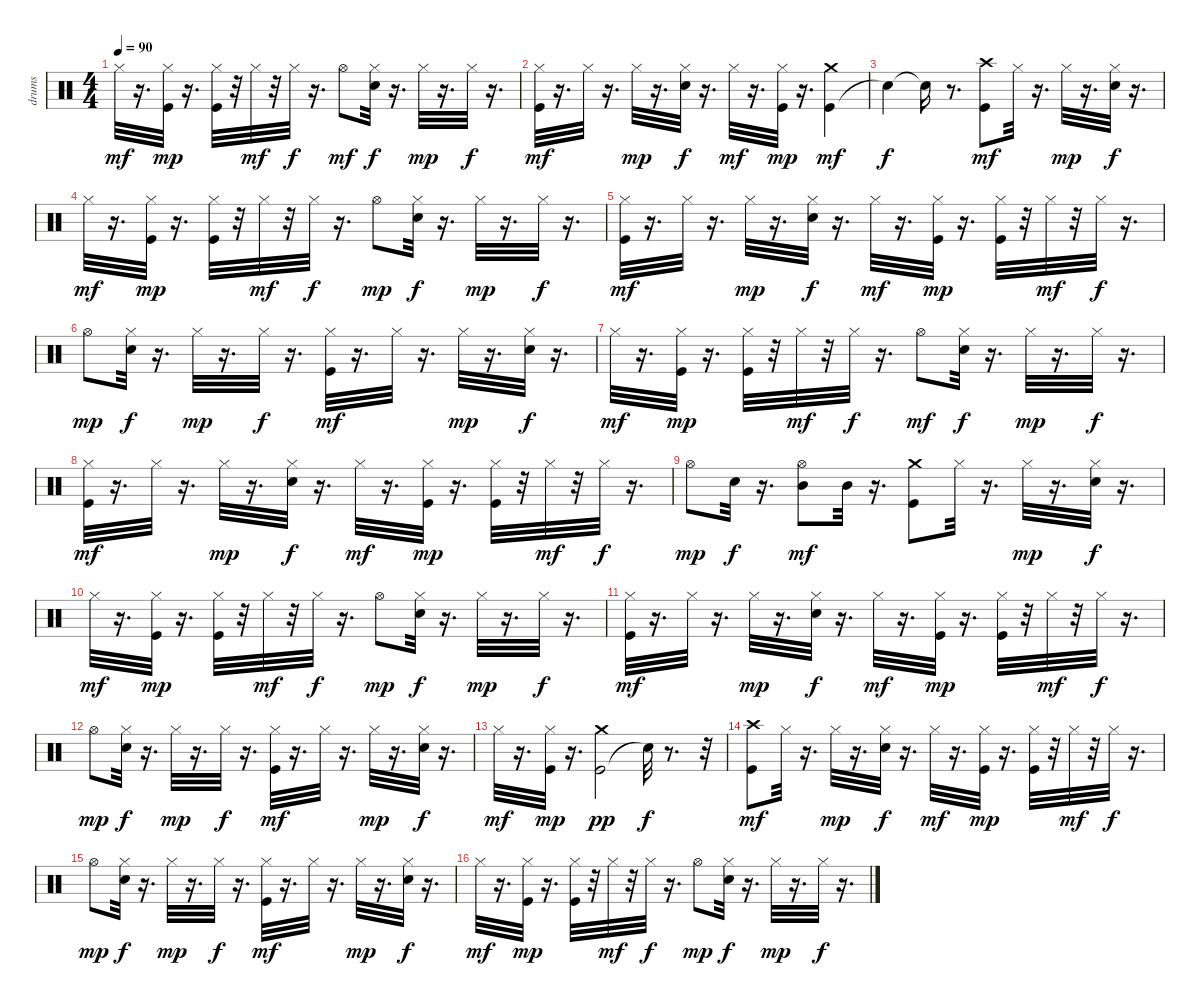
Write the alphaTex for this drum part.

\track ("drums" "drums") {instrument percussion}
\staff {score}
\articulation defaults
\ts (4 4)
\tempo 90
\clef neutral
\ks c "Hi-Hat (closed)".32{dy mf}
r.16{d} ("Kick (hit)" "Hi-Hat (closed)").32{dy mp} r.16{d} ("Kick (hit)" "Hi-Hat (closed)").32 r.32 "Hi-Hat (closed)".32{dy mf} r.32 "Hi-Hat (closed)".32{dy f} r.16{d} "Hi-Hat (open)".8{dy mf} ("Snare (hit) 2" "Hi-Hat (closed)").32{dy f} r.16{d} "Hi-Hat (closed)".32{dy mp} r.16{d} "Hi-Hat (closed)".32{dy f} r.16{d} |
("Kick (hit)" "Hi-Hat (closed)").32{dy mf} r.16{d} "Hi-Hat (closed)".32 r.16{d} "Hi-Hat (closed)".32{dy mp} r.16{d} ("Snare (hit) 2" "Hi-Hat (closed)").32{dy f} r.16{d} "Hi-Hat (closed)".32{dy mf} r.16{d} ("Kick (hit)" "Hi-Hat (closed)").32{dy mp} r.16{d} ("Kick (hit)" "Crash medium (hit)").4{dy mf} |
"Snare (hit)"{t}.4{dy f} "Snare (hit)"{t}.16 r.8{d} ("Kick (hit)" "Crash high (hit)").8{dy mf} "Hi-Hat (closed)".32 r.16{d} "Hi-Hat (closed)".32{dy mp} r.16{d} ("Snare (hit) 2" "Hi-Hat (closed)").32{dy f} r.16{d} |
"Hi-Hat (closed)".32{dy mf} r.16{d} ("Kick (hit)" "Hi-Hat (closed)").32{dy mp} r.16{d} ("Kick (hit)" "Hi-Hat (closed)").32 r.32 "Hi-Hat (closed)".32{dy mf} r.32 "Hi-Hat (closed)".32{dy f} r.16{d} "Hi-Hat (open)".8{dy mp} ("Snare (hit) 2" "Hi-Hat (closed)").32{dy f} r.16{d} "Hi-Hat (closed)".32{dy mp} r.16{d} "Hi-Hat (closed)".32{dy f} r.16{d} |
("Kick (hit)" "Hi-Hat (closed)").32{dy mf} r.16{d} "Hi-Hat (closed)".32 r.16{d} "Hi-Hat (closed)".32{dy mp} r.16{d} ("Snare (hit) 2" "Hi-Hat (closed)").32{dy f} r.16{d} "Hi-Hat (closed)".32{dy mf} r.16{d} ("Kick (hit)" "Hi-Hat (closed)").32{dy mp} r.16{d} ("Kick (hit)" "Hi-Hat (closed)").32 r.32 "Hi-Hat (closed)".32{dy mf} r.32 "Hi-Hat (closed)".32{dy f} r.16{d} |
"Hi-Hat (open)".8{dy mp} ("Snare (hit) 2" "Hi-Hat (closed)").32{dy f} r.16{d} "Hi-Hat (closed)".32{dy mp} r.16{d} "Hi-Hat (closed)".32{dy f} r.16{d} ("Kick (hit)" "Hi-Hat (closed)").32{dy mf} r.16{d} "Hi-Hat (closed)".32 r.16{d} "Hi-Hat (closed)".32{dy mp} r.16{d} ("Snare (hit) 2" "Hi-Hat (closed)").32{dy f} r.16{d} |
"Hi-Hat (closed)".32{dy mf} r.16{d} ("Kick (hit)" "Hi-Hat (closed)").32{dy mp} r.16{d} ("Kick (hit)" "Hi-Hat (closed)").32 r.32 "Hi-Hat (closed)".32{dy mf} r.32 "Hi-Hat (closed)".32{dy f} r.16{d} "Hi-Hat (open)".8{dy mf} ("Snare (hit) 2" "Hi-Hat (closed)").32{dy f} r.16{d} "Hi-Hat (closed)".32{dy mp} r.16{d} "Hi-Hat (closed)".32{dy f} r.16{d} |
("Kick (hit)" "Hi-Hat (closed)").32{dy mf} r.16{d} "Hi-Hat (closed)".32 r.16{d} "Hi-Hat (closed)".32{dy mp} r.16{d} ("Snare (hit) 2" "Hi-Hat (closed)").32{dy f} r.16{d} "Hi-Hat (closed)".32{dy mf} r.16{d} ("Kick (hit)" "Hi-Hat (closed)").32{dy mp} r.16{d} ("Kick (hit)" "Hi-Hat (closed)").32 r.32 "Hi-Hat (closed)".32{dy mf} r.32 "Hi-Hat (closed)".32{dy f} r.16{d} |
"Hi-Hat (open)".8{dy mp} "Snare (hit) 2".32{dy f} r.16{d} ("Hi-Hat (open)" "Mid Tom (hit)").8{dy mf} "Mid Tom (hit)".32 r.16{d} ("Kick (hit)" "Crash medium (hit)").8 "Hi-Hat (closed)".32 r.16{d} "Hi-Hat (closed)".32{dy mp} r.16{d} ("Snare (hit) 2" "Hi-Hat (closed)").32{dy f} r.16{d} |
"Hi-Hat (closed)".32{dy mf} r.16{d} ("Kick (hit)" "Hi-Hat (closed)").32{dy mp} r.16{d} ("Kick (hit)" "Hi-Hat (closed)").32 r.32 "Hi-Hat (closed)".32{dy mf} r.32 "Hi-Hat (closed)".32{dy f} r.16{d} "Hi-Hat (open)".8{dy mp} ("Snare (hit) 2" "Hi-Hat (closed)").32{dy f} r.16{d} "Hi-Hat (closed)".32{dy mp} r.16{d} "Hi-Hat (closed)".32{dy f} r.16{d} |
("Kick (hit)" "Hi-Hat (closed)").32{dy mf} r.16{d} "Hi-Hat (closed)".32 r.16{d} "Hi-Hat (closed)".32{dy mp} r.16{d} ("Snare (hit) 2" "Hi-Hat (closed)").32{dy f} r.16{d} "Hi-Hat (closed)".32{dy mf} r.16{d} ("Kick (hit)" "Hi-Hat (closed)").32{dy mp} r.16{d} ("Kick (hit)" "Hi-Hat (closed)").32 r.32 "Hi-Hat (closed)".32{dy mf} r.32 "Hi-Hat (closed)".32{dy f} r.16{d} |
"Hi-Hat (open)".8{dy mp} ("Snare (hit) 2" "Hi-Hat (closed)").32{dy f} r.16{d} "Hi-Hat (closed)".32{dy mp} r.16{d} "Hi-Hat (closed)".32{dy f} r.16{d} ("Kick (hit)" "Hi-Hat (closed)").32{dy mf} r.16{d} "Hi-Hat (closed)".32 r.16{d} "Hi-Hat (closed)".32{dy mp} r.16{d} ("Snare (hit) 2" "Hi-Hat (closed)").32{dy f} r.16{d} |
"Hi-Hat (closed)".32{dy mf} r.16{d} ("Kick (hit)" "Hi-Hat (closed)").32{dy mp} r.16{d} ("Kick (hit)" "Crash medium (hit)").2{dy pp} "Snare (hit)"{t}.32{dy f} r.8{d} r.32 |
("Kick (hit)" "Crash high (hit)").8{dy mf} "Hi-Hat (closed)".32 r.16{d} "Hi-Hat (closed)".32{dy mp} r.16{d} ("Snare (hit) 2" "Hi-Hat (closed)").32{dy f} r.16{d} "Hi-Hat (closed)".32{dy mf} r.16{d} ("Kick (hit)" "Hi-Hat (closed)").32{dy mp} r.16{d} ("Kick (hit)" "Hi-Hat (closed)").32 r.32 "Hi-Hat (closed)".32{dy mf} r.32 "Hi-Hat (closed)".32{dy f} r.16{d} |
"Hi-Hat (open)".8{dy mp} ("Snare (hit) 2" "Hi-Hat (closed)").32{dy f} r.16{d} "Hi-Hat (closed)".32{dy mp} r.16{d} "Hi-Hat (closed)".32{dy f} r.16{d} ("Kick (hit)" "Hi-Hat (closed)").32{dy mf} r.16{d} "Hi-Hat (closed)".32 r.16{d} "Hi-Hat (closed)".32{dy mp} r.16{d} ("Snare (hit) 2" "Hi-Hat (closed)").32{dy f} r.16{d} |
"Hi-Hat (closed)".32{dy mf} r.16{d} ("Kick (hit)" "Hi-Hat (closed)").32{dy mp} r.16{d} ("Kick (hit)" "Hi-Hat (closed)").32 r.32 "Hi-Hat (closed)".32{dy mf} r.32 "Hi-Hat (closed)".32{dy f} r.16{d} "Hi-Hat (open)".8{dy mp} ("Snare (hit) 2" "Hi-Hat (closed)").32{dy f} r.16{d} "Hi-Hat (closed)".32{dy mp} r.16{d} "Hi-Hat (closed)".32{dy f} r.16{d}
